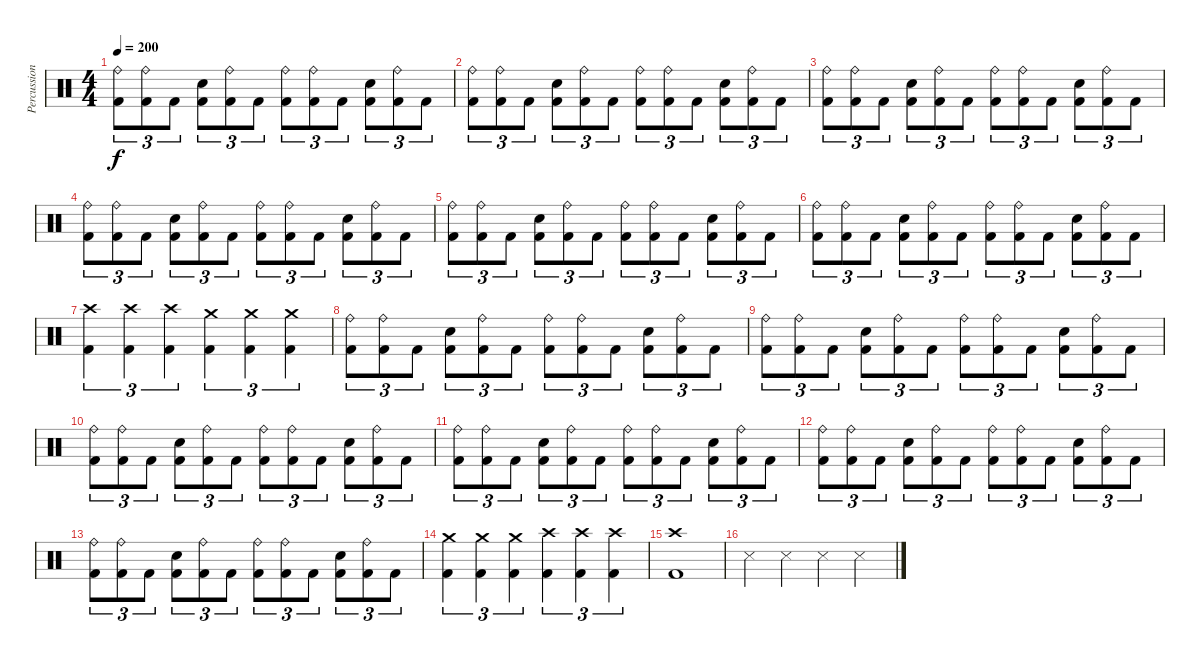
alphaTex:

\track ("Percussion" "Percussion") {instrument percussion}
\staff {score}
\articulation defaults
\ts (4 4)
\tempo 200
\clef neutral
\ks c
("Ride (bell)" "Kick (hit) 2").8{tu (3 2) dy f} ("Ride (bell)" "Kick (hit) 2").8{tu (3 2)} "Kick (hit) 2".8{tu (3 2)} ("Electric Snare (hit)" "Kick (hit) 2").8{tu (3 2)} ("Ride (bell)" "Kick (hit) 2").8{tu (3 2)} "Kick (hit) 2".8{tu (3 2)} ("Ride (bell)" "Kick (hit) 2").8{tu (3 2)} ("Ride (bell)" "Kick (hit) 2").8{tu (3 2)} "Kick (hit) 2".8{tu (3 2)} ("Electric Snare (hit)" "Kick (hit) 2").8{tu (3 2)} ("Ride (bell)" "Kick (hit) 2").8{tu (3 2)} "Kick (hit) 2".8{tu (3 2)} |
("Ride (bell)" "Kick (hit) 2").8{tu (3 2)} ("Ride (bell)" "Kick (hit) 2").8{tu (3 2)} "Kick (hit) 2".8{tu (3 2)} ("Electric Snare (hit)" "Kick (hit) 2").8{tu (3 2)} ("Ride (bell)" "Kick (hit) 2").8{tu (3 2)} "Kick (hit) 2".8{tu (3 2)} ("Ride (bell)" "Kick (hit) 2").8{tu (3 2)} ("Ride (bell)" "Kick (hit) 2").8{tu (3 2)} "Kick (hit) 2".8{tu (3 2)} ("Electric Snare (hit)" "Kick (hit) 2").8{tu (3 2)} ("Ride (bell)" "Kick (hit) 2").8{tu (3 2)} "Kick (hit) 2".8{tu (3 2)} |
("Ride (bell)" "Kick (hit) 2").8{tu (3 2)} ("Ride (bell)" "Kick (hit) 2").8{tu (3 2)} "Kick (hit) 2".8{tu (3 2)} ("Electric Snare (hit)" "Kick (hit) 2").8{tu (3 2)} ("Ride (bell)" "Kick (hit) 2").8{tu (3 2)} "Kick (hit) 2".8{tu (3 2)} ("Ride (bell)" "Kick (hit) 2").8{tu (3 2)} ("Ride (bell)" "Kick (hit) 2").8{tu (3 2)} "Kick (hit) 2".8{tu (3 2)} ("Electric Snare (hit)" "Kick (hit) 2").8{tu (3 2)} ("Ride (bell)" "Kick (hit) 2").8{tu (3 2)} "Kick (hit) 2".8{tu (3 2)} |
("Ride (bell)" "Kick (hit) 2").8{tu (3 2)} ("Ride (bell)" "Kick (hit) 2").8{tu (3 2)} "Kick (hit) 2".8{tu (3 2)} ("Electric Snare (hit)" "Kick (hit) 2").8{tu (3 2)} ("Ride (bell)" "Kick (hit) 2").8{tu (3 2)} "Kick (hit) 2".8{tu (3 2)} ("Ride (bell)" "Kick (hit) 2").8{tu (3 2)} ("Ride (bell)" "Kick (hit) 2").8{tu (3 2)} "Kick (hit) 2".8{tu (3 2)} ("Electric Snare (hit)" "Kick (hit) 2").8{tu (3 2)} ("Ride (bell)" "Kick (hit) 2").8{tu (3 2)} "Kick (hit) 2".8{tu (3 2)} |
("Ride (bell)" "Kick (hit) 2").8{tu (3 2)} ("Ride (bell)" "Kick (hit) 2").8{tu (3 2)} "Kick (hit) 2".8{tu (3 2)} ("Electric Snare (hit)" "Kick (hit) 2").8{tu (3 2)} ("Ride (bell)" "Kick (hit) 2").8{tu (3 2)} "Kick (hit) 2".8{tu (3 2)} ("Ride (bell)" "Kick (hit) 2").8{tu (3 2)} ("Ride (bell)" "Kick (hit) 2").8{tu (3 2)} "Kick (hit) 2".8{tu (3 2)} ("Electric Snare (hit)" "Kick (hit) 2").8{tu (3 2)} ("Ride (bell)" "Kick (hit) 2").8{tu (3 2)} "Kick (hit) 2".8{tu (3 2)} |
("Ride (bell)" "Kick (hit) 2").8{tu (3 2)} ("Ride (bell)" "Kick (hit) 2").8{tu (3 2)} "Kick (hit) 2".8{tu (3 2)} ("Electric Snare (hit)" "Kick (hit) 2").8{tu (3 2)} ("Ride (bell)" "Kick (hit) 2").8{tu (3 2)} "Kick (hit) 2".8{tu (3 2)} ("Ride (bell)" "Kick (hit) 2").8{tu (3 2)} ("Ride (bell)" "Kick (hit) 2").8{tu (3 2)} "Kick (hit) 2".8{tu (3 2)} ("Electric Snare (hit)" "Kick (hit) 2").8{tu (3 2)} ("Ride (bell)" "Kick (hit) 2").8{tu (3 2)} "Kick (hit) 2".8{tu (3 2)} |
("Crash high (hit)" "Kick (hit) 2").4{tu (3 2)} ("Crash high (hit)" "Kick (hit) 2").4{tu (3 2)} ("Crash high (hit)" "Kick (hit) 2").4{tu (3 2)} ("Crash medium (hit)" "Kick (hit) 2").4{tu (3 2)} ("Crash medium (hit)" "Kick (hit) 2").4{tu (3 2)} ("Crash medium (hit)" "Kick (hit) 2").4{tu (3 2)} |
("Ride (bell)" "Kick (hit) 2").8{tu (3 2)} ("Ride (bell)" "Kick (hit) 2").8{tu (3 2)} "Kick (hit) 2".8{tu (3 2)} ("Electric Snare (hit)" "Kick (hit) 2").8{tu (3 2)} ("Ride (bell)" "Kick (hit) 2").8{tu (3 2)} "Kick (hit) 2".8{tu (3 2)} ("Ride (bell)" "Kick (hit) 2").8{tu (3 2)} ("Ride (bell)" "Kick (hit) 2").8{tu (3 2)} "Kick (hit) 2".8{tu (3 2)} ("Electric Snare (hit)" "Kick (hit) 2").8{tu (3 2)} ("Ride (bell)" "Kick (hit) 2").8{tu (3 2)} "Kick (hit) 2".8{tu (3 2)} |
("Ride (bell)" "Kick (hit) 2").8{tu (3 2)} ("Ride (bell)" "Kick (hit) 2").8{tu (3 2)} "Kick (hit) 2".8{tu (3 2)} ("Electric Snare (hit)" "Kick (hit) 2").8{tu (3 2)} ("Ride (bell)" "Kick (hit) 2").8{tu (3 2)} "Kick (hit) 2".8{tu (3 2)} ("Ride (bell)" "Kick (hit) 2").8{tu (3 2)} ("Ride (bell)" "Kick (hit) 2").8{tu (3 2)} "Kick (hit) 2".8{tu (3 2)} ("Electric Snare (hit)" "Kick (hit) 2").8{tu (3 2)} ("Ride (bell)" "Kick (hit) 2").8{tu (3 2)} "Kick (hit) 2".8{tu (3 2)} |
("Ride (bell)" "Kick (hit) 2").8{tu (3 2)} ("Ride (bell)" "Kick (hit) 2").8{tu (3 2)} "Kick (hit) 2".8{tu (3 2)} ("Electric Snare (hit)" "Kick (hit) 2").8{tu (3 2)} ("Ride (bell)" "Kick (hit) 2").8{tu (3 2)} "Kick (hit) 2".8{tu (3 2)} ("Ride (bell)" "Kick (hit) 2").8{tu (3 2)} ("Ride (bell)" "Kick (hit) 2").8{tu (3 2)} "Kick (hit) 2".8{tu (3 2)} ("Electric Snare (hit)" "Kick (hit) 2").8{tu (3 2)} ("Ride (bell)" "Kick (hit) 2").8{tu (3 2)} "Kick (hit) 2".8{tu (3 2)} |
("Ride (bell)" "Kick (hit) 2").8{tu (3 2)} ("Ride (bell)" "Kick (hit) 2").8{tu (3 2)} "Kick (hit) 2".8{tu (3 2)} ("Electric Snare (hit)" "Kick (hit) 2").8{tu (3 2)} ("Ride (bell)" "Kick (hit) 2").8{tu (3 2)} "Kick (hit) 2".8{tu (3 2)} ("Ride (bell)" "Kick (hit) 2").8{tu (3 2)} ("Ride (bell)" "Kick (hit) 2").8{tu (3 2)} "Kick (hit) 2".8{tu (3 2)} ("Electric Snare (hit)" "Kick (hit) 2").8{tu (3 2)} ("Ride (bell)" "Kick (hit) 2").8{tu (3 2)} "Kick (hit) 2".8{tu (3 2)} |
("Ride (bell)" "Kick (hit) 2").8{tu (3 2)} ("Ride (bell)" "Kick (hit) 2").8{tu (3 2)} "Kick (hit) 2".8{tu (3 2)} ("Electric Snare (hit)" "Kick (hit) 2").8{tu (3 2)} ("Ride (bell)" "Kick (hit) 2").8{tu (3 2)} "Kick (hit) 2".8{tu (3 2)} ("Ride (bell)" "Kick (hit) 2").8{tu (3 2)} ("Ride (bell)" "Kick (hit) 2").8{tu (3 2)} "Kick (hit) 2".8{tu (3 2)} ("Electric Snare (hit)" "Kick (hit) 2").8{tu (3 2)} ("Ride (bell)" "Kick (hit) 2").8{tu (3 2)} "Kick (hit) 2".8{tu (3 2)} |
("Ride (bell)" "Kick (hit) 2").8{tu (3 2)} ("Ride (bell)" "Kick (hit) 2").8{tu (3 2)} "Kick (hit) 2".8{tu (3 2)} ("Electric Snare (hit)" "Kick (hit) 2").8{tu (3 2)} ("Ride (bell)" "Kick (hit) 2").8{tu (3 2)} "Kick (hit) 2".8{tu (3 2)} ("Ride (bell)" "Kick (hit) 2").8{tu (3 2)} ("Ride (bell)" "Kick (hit) 2").8{tu (3 2)} "Kick (hit) 2".8{tu (3 2)} ("Electric Snare (hit)" "Kick (hit) 2").8{tu (3 2)} ("Ride (bell)" "Kick (hit) 2").8{tu (3 2)} "Kick (hit) 2".8{tu (3 2)} |
("Crash medium (hit)" "Kick (hit) 2").4{tu (3 2)} ("Crash medium (hit)" "Kick (hit) 2").4{tu (3 2)} ("Crash medium (hit)" "Kick (hit) 2").4{tu (3 2)} ("Crash high (hit)" "Kick (hit) 2").4{tu (3 2)} ("Crash high (hit)" "Kick (hit) 2").4{tu (3 2)} ("Crash high (hit)" "Kick (hit) 2").4{tu (3 2)} |
("Crash high (hit)" "Kick (hit) 2").1 |
"Snare (side stick) 3".4 "Snare (side stick) 3".4 "Snare (side stick) 3".4 "Snare (side stick) 3".4
